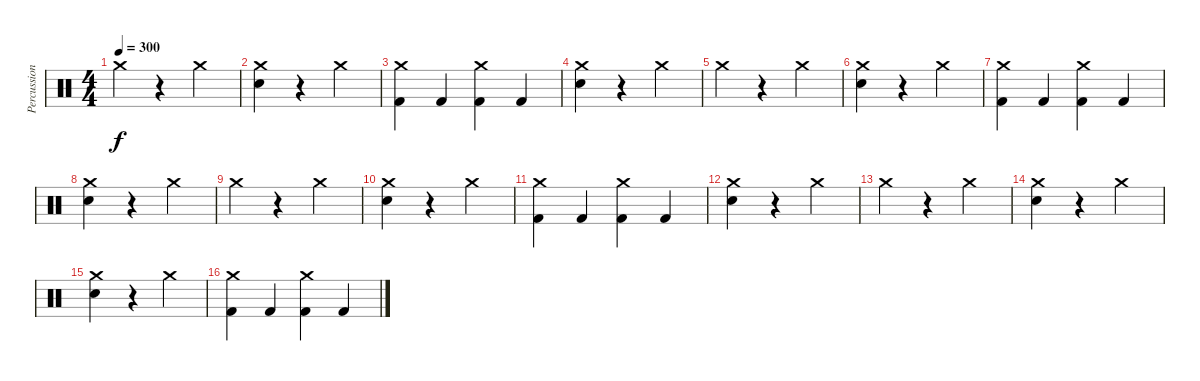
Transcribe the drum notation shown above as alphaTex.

\track ("Percussion" "Percussion") {instrument percussion}
\staff {score}
\articulation defaults
\ts (4 4)
\tempo 300
\clef neutral
\ks c "Crash medium (hit)".4{dy f}
r.4 "Crash medium (hit)".4 |
("Snare (hit) 2" "Crash medium (hit)").4 r.4 "Crash medium (hit)".4 |
("Kick (hit) 2" "Crash medium (hit)").4 "Kick (hit) 2".4 ("Kick (hit) 2" "Crash medium (hit)").4 "Kick (hit) 2".4 |
("Snare (hit) 2" "Crash medium (hit)").4 r.4 "Crash medium (hit)".4 |
"Crash medium (hit)".4 r.4 "Crash medium (hit)".4 |
("Snare (hit) 2" "Crash medium (hit)").4 r.4 "Crash medium (hit)".4 |
("Kick (hit) 2" "Crash medium (hit)").4 "Kick (hit) 2".4 ("Kick (hit) 2" "Crash medium (hit)").4 "Kick (hit) 2".4 |
("Snare (hit) 2" "Crash medium (hit)").4 r.4 "Crash medium (hit)".4 |
"Crash medium (hit)".4 r.4 "Crash medium (hit)".4 |
("Snare (hit) 2" "Crash medium (hit)").4 r.4 "Crash medium (hit)".4 |
("Kick (hit) 2" "Crash medium (hit)").4 "Kick (hit) 2".4 ("Kick (hit) 2" "Crash medium (hit)").4 "Kick (hit) 2".4 |
("Snare (hit) 2" "Crash medium (hit)").4 r.4 "Crash medium (hit)".4 |
"Crash medium (hit)".4 r.4 "Crash medium (hit)".4 |
("Snare (hit) 2" "Crash medium (hit)").4 r.4 "Crash medium (hit)".4 |
("Snare (hit) 2" "Crash medium (hit)").4 r.4 "Crash medium (hit)".4 |
("Kick (hit) 2" "Crash medium (hit)").4 "Kick (hit) 2".4 ("Kick (hit) 2" "Crash medium (hit)").4 "Kick (hit) 2".4
